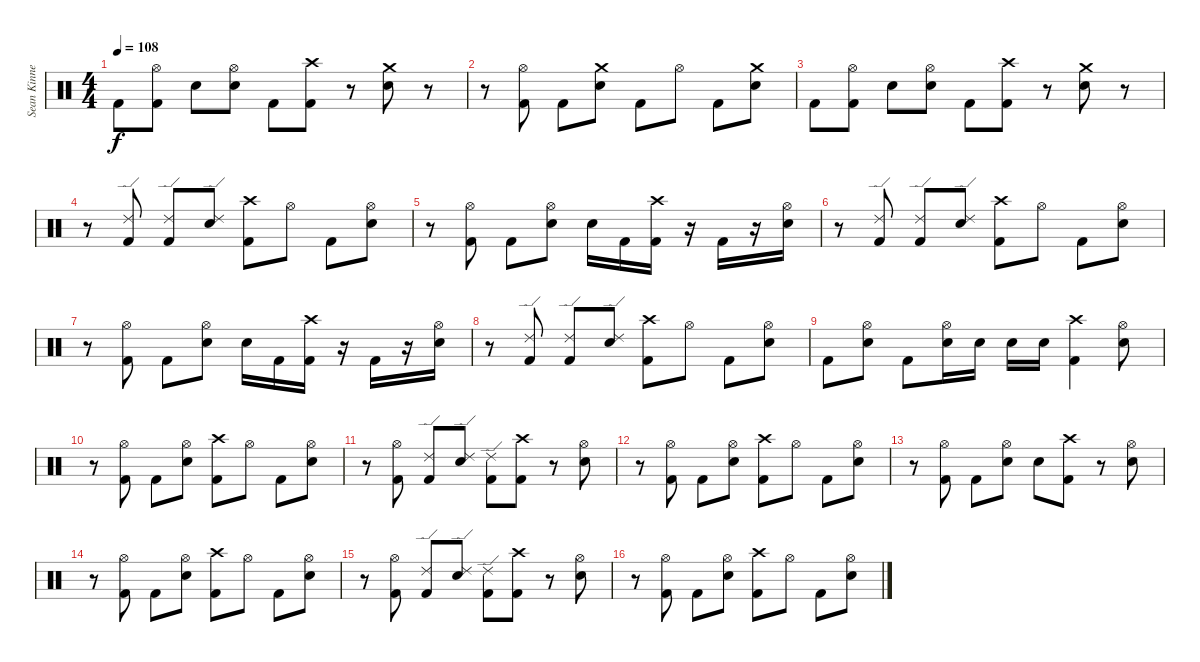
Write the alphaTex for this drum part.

\track ("Sean Kinney" "Sean Kinne") {instrument percussion}
\staff {score}
\articulation defaults
\ts (4 4)
\tempo 108
\clef neutral
\ks c "Kick (hit) 2".8{dy f}
("Hi-Hat (open)" "Kick (hit) 2").8 "Electric Snare (hit)".8 ("Hi-Hat (open)" "Electric Snare (hit)").8 "Kick (hit) 2".8 ("Crash high (hit)" "Kick (hit) 2").8 r.8 ("Crash medium (hit)" "Electric Snare (hit)").8 r.8 |
r.8 ("Hi-Hat (open)" "Kick (hit) 2").8 "Kick (hit) 2".8 ("Crash medium (hit)" "Electric Snare (hit)").8 "Kick (hit) 2".8 "Hi-Hat (open)".8 "Kick (hit) 2".8 ("Crash medium (hit)" "Electric Snare (hit)").8 |
"Kick (hit) 2".8 ("Hi-Hat (open)" "Kick (hit) 2").8 "Electric Snare (hit)".8 ("Hi-Hat (open)" "Electric Snare (hit)").8 "Kick (hit) 2".8 ("Crash high (hit)" "Kick (hit) 2").8 r.8 ("Crash medium (hit)" "Electric Snare (hit)").8 r.8 |
r.8 ("Ride (edge) 2" "Kick (hit) 2").8 ("Ride (edge) 2" "Kick (hit) 2").8 ("Ride (edge) 2" "Electric Snare (hit)").8 ("Crash high (hit)" "Kick (hit) 2").8 "Hi-Hat (open)".8 "Kick (hit) 2".8 ("Hi-Hat (open)" "Electric Snare (hit)").8 |
r.8 ("Hi-Hat (open)" "Kick (hit) 2").8 "Kick (hit) 2".8 ("Hi-Hat (open)" "Electric Snare (hit)").8 "Electric Snare (hit)".16 "Kick (hit) 2".16 ("Crash high (hit)" "Kick (hit) 2").16 r.16 "Kick (hit) 2".16 r.16 ("Hi-Hat (open)" "Electric Snare (hit)").16 |
r.8 ("Ride (edge) 2" "Kick (hit) 2").8 ("Ride (edge) 2" "Kick (hit) 2").8 ("Ride (edge) 2" "Electric Snare (hit)").8 ("Crash high (hit)" "Kick (hit) 2").8 "Hi-Hat (open)".8 "Kick (hit) 2".8 ("Hi-Hat (open)" "Electric Snare (hit)").8 |
r.8 ("Hi-Hat (open)" "Kick (hit) 2").8 "Kick (hit) 2".8 ("Hi-Hat (open)" "Electric Snare (hit)").8 "Electric Snare (hit)".16 "Kick (hit) 2".16 ("Crash high (hit)" "Kick (hit) 2").16 r.16 "Kick (hit) 2".16 r.16 ("Hi-Hat (open)" "Electric Snare (hit)").16 |
r.8 ("Ride (edge) 2" "Kick (hit) 2").8 ("Ride (edge) 2" "Kick (hit) 2").8 ("Ride (edge) 2" "Electric Snare (hit)").8 ("Crash high (hit)" "Kick (hit) 2").8 "Hi-Hat (open)".8 "Kick (hit) 2".8 ("Hi-Hat (open)" "Electric Snare (hit)").8 |
"Kick (hit) 2".8 ("Hi-Hat (open)" "Electric Snare (hit)").8 "Kick (hit) 2".8 ("Hi-Hat (open)" "Electric Snare (hit)").16 "Electric Snare (hit)".16 "Electric Snare (hit)".16 "Electric Snare (hit)".16 ("Crash high (hit)" "Kick (hit) 2").4 ("Hi-Hat (open)" "Electric Snare (hit)").8 |
r.8 ("Hi-Hat (open)" "Kick (hit) 2").8 "Kick (hit) 2".8 ("Hi-Hat (open)" "Electric Snare (hit)").8 ("Crash high (hit)" "Kick (hit) 2").8 "Hi-Hat (open)".8 "Kick (hit) 2".8 ("Hi-Hat (open)" "Electric Snare (hit)").8 |
r.8 ("Hi-Hat (open)" "Kick (hit) 2").8 ("Ride (edge) 2" "Kick (hit) 2").8 ("Ride (edge) 2" "Electric Snare (hit)").8 ("Ride (edge) 2" "Kick (hit) 2").8 ("Crash high (hit)" "Kick (hit) 2").8 r.8 ("Hi-Hat (open)" "Electric Snare (hit)").8 |
r.8 ("Hi-Hat (open)" "Kick (hit) 2").8 "Kick (hit) 2".8 ("Hi-Hat (open)" "Electric Snare (hit)").8 ("Crash high (hit)" "Kick (hit) 2").8 "Hi-Hat (open)".8 "Kick (hit) 2".8 ("Hi-Hat (open)" "Electric Snare (hit)").8 |
r.8 ("Hi-Hat (open)" "Kick (hit) 2").8 "Kick (hit) 2".8 ("Hi-Hat (open)" "Electric Snare (hit)").8 "Electric Snare (hit)".8 ("Crash high (hit)" "Kick (hit) 2").8 r.8 ("Hi-Hat (open)" "Electric Snare (hit)").8 |
r.8 ("Hi-Hat (open)" "Kick (hit) 2").8 "Kick (hit) 2".8 ("Hi-Hat (open)" "Electric Snare (hit)").8 ("Crash high (hit)" "Kick (hit) 2").8 "Hi-Hat (open)".8 "Kick (hit) 2".8 ("Hi-Hat (open)" "Electric Snare (hit)").8 |
r.8 ("Hi-Hat (open)" "Kick (hit) 2").8 ("Ride (edge) 2" "Kick (hit) 2").8 ("Ride (edge) 2" "Electric Snare (hit)").8 ("Ride (edge) 2" "Kick (hit) 2").8 ("Crash high (hit)" "Kick (hit) 2").8 r.8 ("Hi-Hat (open)" "Electric Snare (hit)").8 |
r.8 ("Hi-Hat (open)" "Kick (hit) 2").8 "Kick (hit) 2".8 ("Hi-Hat (open)" "Electric Snare (hit)").8 ("Crash high (hit)" "Kick (hit) 2").8 "Hi-Hat (open)".8 "Kick (hit) 2".8 ("Hi-Hat (open)" "Electric Snare (hit)").8
